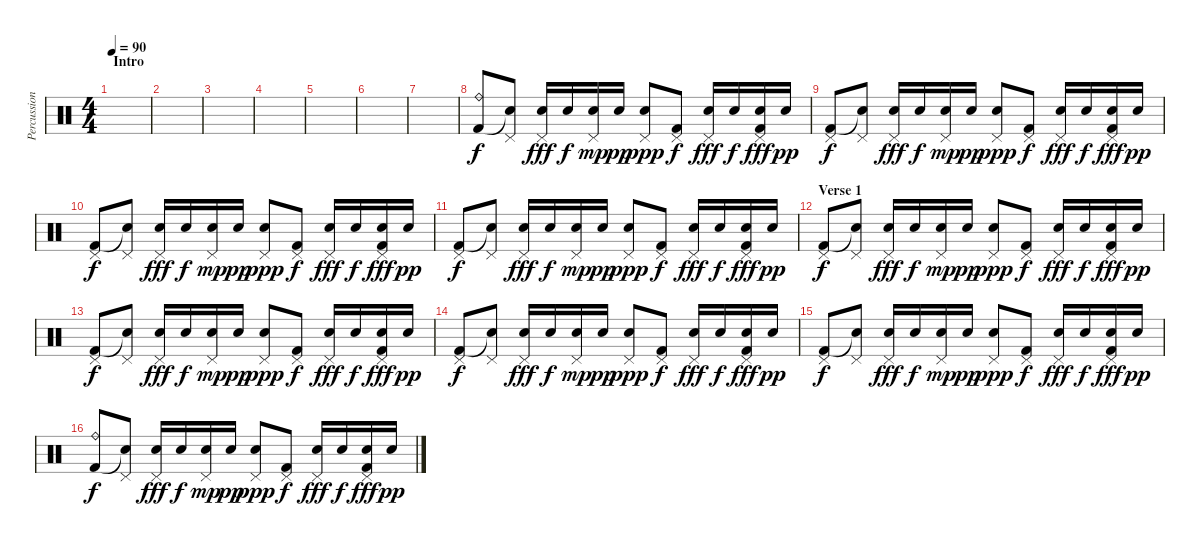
\track ("Percussion" "Percussion") {instrument percussion}
\staff {score}
\articulation defaults
\ts (4 4)
\section ("" "Intro")
\tempo 90
\clef neutral
\ks c
|
|
|
|
|
|
|
("Ride (bell)" "Kick (hit) 2").8 ("Pedal Hi-Hat (hit)" "Snare (hit)"{t}).8 ("Pedal Hi-Hat (hit)" "Electric Snare (hit)").16{dy fff} "Electric Snare (hit)".16{dy f} ("Pedal Hi-Hat (hit)" "Electric Snare (hit)").16{dy mp} "Electric Snare (hit)".16{dy pp} ("Pedal Hi-Hat (hit)" "Electric Snare (hit)").8{dy ppp} ("Pedal Hi-Hat (hit)" "Kick (hit) 2").8{dy f} ("Pedal Hi-Hat (hit)" "Electric Snare (hit)").16{dy fff} "Electric Snare (hit)".16{dy f} ("Pedal Hi-Hat (hit)" "Electric Snare (hit)" "Kick (hit) 2").16{dy fff} "Electric Snare (hit)".16{dy pp} |
("Pedal Hi-Hat (hit)" "Kick (hit) 2").8{dy f} ("Pedal Hi-Hat (hit)" "Snare (hit)"{t}).8 ("Pedal Hi-Hat (hit)" "Electric Snare (hit)").16{dy fff} "Electric Snare (hit)".16{dy f} ("Pedal Hi-Hat (hit)" "Electric Snare (hit)").16{dy mp} "Electric Snare (hit)".16{dy pp} ("Pedal Hi-Hat (hit)" "Electric Snare (hit)").8{dy ppp} ("Pedal Hi-Hat (hit)" "Kick (hit) 2").8{dy f} ("Pedal Hi-Hat (hit)" "Electric Snare (hit)").16{dy fff} "Electric Snare (hit)".16{dy f} ("Pedal Hi-Hat (hit)" "Electric Snare (hit)" "Kick (hit) 2").16{dy fff} "Electric Snare (hit)".16{dy pp} |
("Pedal Hi-Hat (hit)" "Kick (hit) 2").8{dy f} ("Pedal Hi-Hat (hit)" "Snare (hit)"{t}).8 ("Pedal Hi-Hat (hit)" "Electric Snare (hit)").16{dy fff} "Electric Snare (hit)".16{dy f} ("Pedal Hi-Hat (hit)" "Electric Snare (hit)").16{dy mp} "Electric Snare (hit)".16{dy pp} ("Pedal Hi-Hat (hit)" "Electric Snare (hit)").8{dy ppp} ("Pedal Hi-Hat (hit)" "Kick (hit) 2").8{dy f} ("Pedal Hi-Hat (hit)" "Electric Snare (hit)").16{dy fff} "Electric Snare (hit)".16{dy f} ("Pedal Hi-Hat (hit)" "Electric Snare (hit)" "Kick (hit) 2").16{dy fff} "Electric Snare (hit)".16{dy pp} |
("Pedal Hi-Hat (hit)" "Kick (hit) 2").8{dy f} ("Pedal Hi-Hat (hit)" "Snare (hit)"{t}).8 ("Pedal Hi-Hat (hit)" "Electric Snare (hit)").16{dy fff} "Electric Snare (hit)".16{dy f} ("Pedal Hi-Hat (hit)" "Electric Snare (hit)").16{dy mp} "Electric Snare (hit)".16{dy pp} ("Pedal Hi-Hat (hit)" "Electric Snare (hit)").8{dy ppp} ("Pedal Hi-Hat (hit)" "Kick (hit) 2").8{dy f} ("Pedal Hi-Hat (hit)" "Electric Snare (hit)").16{dy fff} "Electric Snare (hit)".16{dy f} ("Pedal Hi-Hat (hit)" "Electric Snare (hit)" "Kick (hit) 2").16{dy fff} "Electric Snare (hit)".16{dy pp} |
\section ("" "Verse 1")
("Pedal Hi-Hat (hit)" "Kick (hit) 2").8{dy f} ("Pedal Hi-Hat (hit)" "Snare (hit)"{t}).8 ("Pedal Hi-Hat (hit)" "Electric Snare (hit)").16{dy fff} "Electric Snare (hit)".16{dy f} ("Pedal Hi-Hat (hit)" "Electric Snare (hit)").16{dy mp} "Electric Snare (hit)".16{dy pp} ("Pedal Hi-Hat (hit)" "Electric Snare (hit)").8{dy ppp} ("Pedal Hi-Hat (hit)" "Kick (hit) 2").8{dy f} ("Pedal Hi-Hat (hit)" "Electric Snare (hit)").16{dy fff} "Electric Snare (hit)".16{dy f} ("Pedal Hi-Hat (hit)" "Electric Snare (hit)" "Kick (hit) 2").16{dy fff} "Electric Snare (hit)".16{dy pp} |
("Pedal Hi-Hat (hit)" "Kick (hit) 2").8{dy f} ("Pedal Hi-Hat (hit)" "Snare (hit)"{t}).8 ("Pedal Hi-Hat (hit)" "Electric Snare (hit)").16{dy fff} "Electric Snare (hit)".16{dy f} ("Pedal Hi-Hat (hit)" "Electric Snare (hit)").16{dy mp} "Electric Snare (hit)".16{dy pp} ("Pedal Hi-Hat (hit)" "Electric Snare (hit)").8{dy ppp} ("Pedal Hi-Hat (hit)" "Kick (hit) 2").8{dy f} ("Pedal Hi-Hat (hit)" "Electric Snare (hit)").16{dy fff} "Electric Snare (hit)".16{dy f} ("Pedal Hi-Hat (hit)" "Electric Snare (hit)" "Kick (hit) 2").16{dy fff} "Electric Snare (hit)".16{dy pp} |
("Pedal Hi-Hat (hit)" "Kick (hit) 2").8{dy f} ("Pedal Hi-Hat (hit)" "Snare (hit)"{t}).8 ("Pedal Hi-Hat (hit)" "Electric Snare (hit)").16{dy fff} "Electric Snare (hit)".16{dy f} ("Pedal Hi-Hat (hit)" "Electric Snare (hit)").16{dy mp} "Electric Snare (hit)".16{dy pp} ("Pedal Hi-Hat (hit)" "Electric Snare (hit)").8{dy ppp} ("Pedal Hi-Hat (hit)" "Kick (hit) 2").8{dy f} ("Pedal Hi-Hat (hit)" "Electric Snare (hit)").16{dy fff} "Electric Snare (hit)".16{dy f} ("Pedal Hi-Hat (hit)" "Electric Snare (hit)" "Kick (hit) 2").16{dy fff} "Electric Snare (hit)".16{dy pp} |
("Pedal Hi-Hat (hit)" "Kick (hit) 2").8{dy f} ("Pedal Hi-Hat (hit)" "Snare (hit)"{t}).8 ("Pedal Hi-Hat (hit)" "Electric Snare (hit)").16{dy fff} "Electric Snare (hit)".16{dy f} ("Pedal Hi-Hat (hit)" "Electric Snare (hit)").16{dy mp} "Electric Snare (hit)".16{dy pp} ("Pedal Hi-Hat (hit)" "Electric Snare (hit)").8{dy ppp} ("Pedal Hi-Hat (hit)" "Kick (hit) 2").8{dy f} ("Pedal Hi-Hat (hit)" "Electric Snare (hit)").16{dy fff} "Electric Snare (hit)".16{dy f} ("Pedal Hi-Hat (hit)" "Electric Snare (hit)" "Kick (hit) 2").16{dy fff} "Electric Snare (hit)".16{dy pp} |
("Ride (bell)" "Kick (hit) 2").8{dy f} ("Pedal Hi-Hat (hit)" "Snare (hit)"{t}).8 ("Pedal Hi-Hat (hit)" "Electric Snare (hit)").16{dy fff} "Electric Snare (hit)".16{dy f} ("Pedal Hi-Hat (hit)" "Electric Snare (hit)").16{dy mp} "Electric Snare (hit)".16{dy pp} ("Pedal Hi-Hat (hit)" "Electric Snare (hit)").8{dy ppp} ("Pedal Hi-Hat (hit)" "Kick (hit) 2").8{dy f} ("Pedal Hi-Hat (hit)" "Electric Snare (hit)").16{dy fff} "Electric Snare (hit)".16{dy f} ("Pedal Hi-Hat (hit)" "Electric Snare (hit)" "Kick (hit) 2").16{dy fff} "Electric Snare (hit)".16{dy pp}
